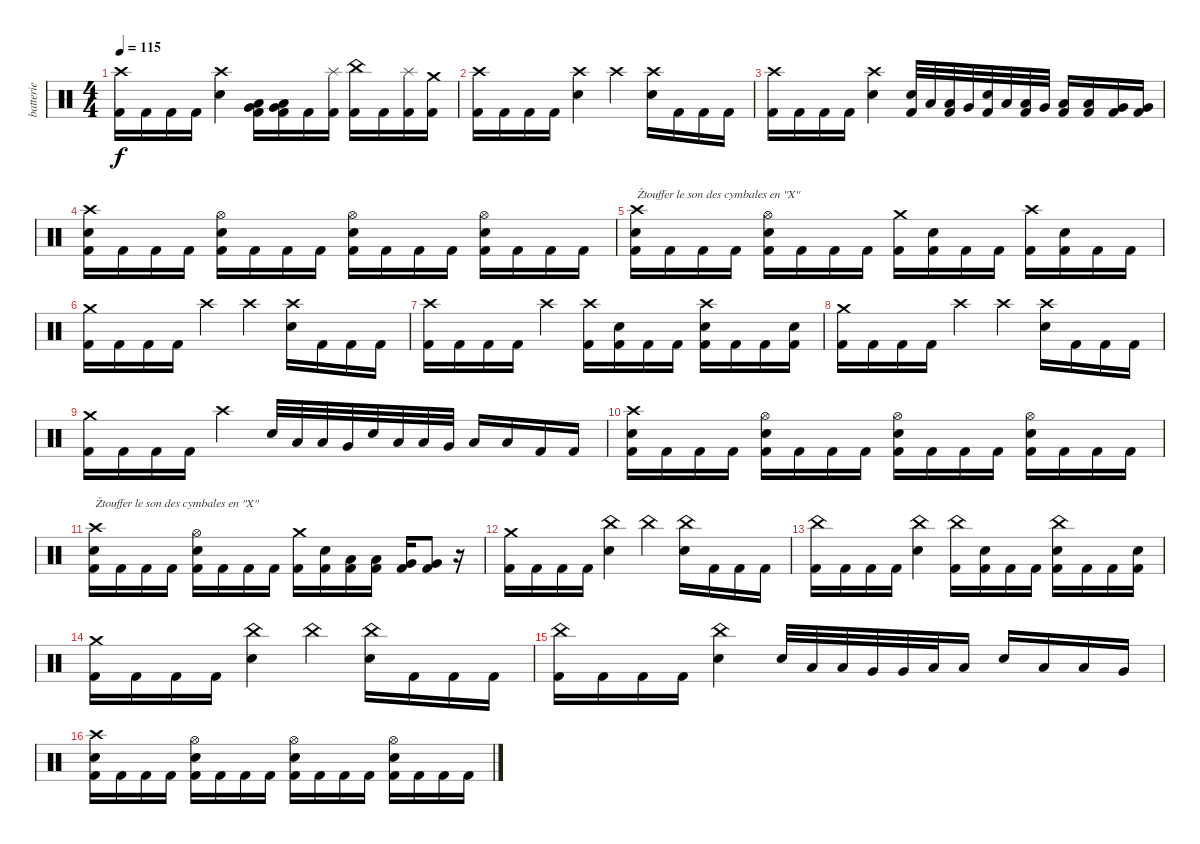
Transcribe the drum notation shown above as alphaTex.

\track ("batterie" "batterie") {instrument percussion}
\staff {score}
\articulation defaults
\ts (4 4)
\tempo 115
\clef neutral
\ks c
("Crash high (hit)" "Kick (hit) 2").16{dy f} "Kick (hit) 2".16 "Kick (hit) 2".16 "Kick (hit) 2".16 ("Crash high (hit)" "Electric Snare (hit)").4 ("Low Tom (hit)" "Very Low Tom (hit)" "Kick (hit) 2").16 ("Low Tom (hit)" "Very Low Tom (hit)" "Kick (hit) 2").16 "Kick (hit) 2".16 ("Splash (hit)" "Kick (hit) 2").16 ("China (hit)" "Kick (hit) 2").16 "Kick (hit) 2".16 ("Splash (hit)" "Kick (hit) 2").16 ("Crash medium (hit)" "Kick (hit) 2").16 |
("Crash high (hit)" "Kick (hit) 2").16 "Kick (hit) 2".16 "Kick (hit) 2".16 "Kick (hit) 2".16 ("Crash high (hit)" "Electric Snare (hit)").4 "Crash high (hit)".4 ("Crash high (hit)" "Electric Snare (hit)").16 "Kick (hit) 2".16 "Kick (hit) 2".16 "Kick (hit) 2".16 |
("Crash high (hit)" "Kick (hit) 2").16 "Kick (hit) 2".16 "Kick (hit) 2".16 "Kick (hit) 2".16 ("Crash high (hit)" "Electric Snare (hit)").4 ("Electric Snare (hit)" "Kick (hit) 2").32 "Low Tom (hit)".32 ("Low Tom (hit)" "Kick (hit) 2").32 "Very Low Tom (hit)".32 ("Electric Snare (hit)" "Kick (hit) 2").32 "Low Tom (hit)".32 ("Low Tom (hit)" "Kick (hit) 2").32 "Very Low Tom (hit)".32 ("Low Tom (hit)" "Kick (hit) 2").16 ("Low Tom (hit)" "Kick (hit) 2").16 ("Very Low Tom (hit)" "Kick (hit) 2").16 ("Very Low Tom (hit)" "Kick (hit) 2").16 |
("Crash high (hit)" "Electric Snare (hit)" "Kick (hit) 2").16 "Kick (hit) 2".16 "Kick (hit) 2".16 "Kick (hit) 2".16 ("Hi-Hat (open)" "Electric Snare (hit)" "Kick (hit) 2").16 "Kick (hit) 2".16 "Kick (hit) 2".16 "Kick (hit) 2".16 ("Hi-Hat (open)" "Electric Snare (hit)" "Kick (hit) 2").16 "Kick (hit) 2".16 "Kick (hit) 2".16 "Kick (hit) 2".16 ("Hi-Hat (open)" "Electric Snare (hit)" "Kick (hit) 2").16 "Kick (hit) 2".16 "Kick (hit) 2".16 "Kick (hit) 2".16 |
("Crash high (hit)" "Electric Snare (hit)" "Kick (hit) 2").16{txt "Žtouffer le son des cymbales en \"X\""} "Kick (hit) 2".16 "Kick (hit) 2".16 "Kick (hit) 2".16 ("Hi-Hat (open)" "Electric Snare (hit)" "Kick (hit) 2").16 "Kick (hit) 2".16 "Kick (hit) 2".16 "Kick (hit) 2".16 ("Crash medium (hit)" "Kick (hit) 2").16 ("Snare (hit)"{x} "Kick (hit) 2").16 "Kick (hit) 2".16 "Kick (hit) 2".16 ("Crash high (hit)" "Kick (hit) 2").16 ("Snare (hit)"{x} "Kick (hit) 2").16 "Kick (hit) 2".16 "Kick (hit) 2".16 |
("Crash medium (hit)" "Kick (hit) 2").16 "Kick (hit) 2".16 "Kick (hit) 2".16 "Kick (hit) 2".16 "Crash high (hit)".4 "Crash high (hit)".4 ("Crash high (hit)" "Electric Snare (hit)").16 "Kick (hit) 2".16 "Kick (hit) 2".16 "Kick (hit) 2".16 |
("Crash high (hit)" "Kick (hit) 2").16 "Kick (hit) 2".16 "Kick (hit) 2".16 "Kick (hit) 2".16 "Crash high (hit)".4 ("Crash high (hit)" "Kick (hit) 2").16 ("Electric Snare (hit)" "Kick (hit) 2").16 "Kick (hit) 2".16 "Kick (hit) 2".16 ("Crash high (hit)" "Electric Snare (hit)" "Kick (hit) 2").16 "Kick (hit) 2".16 "Kick (hit) 2".16 ("Electric Snare (hit)" "Kick (hit) 2").16 |
("Crash medium (hit)" "Kick (hit) 2").16 "Kick (hit) 2".16 "Kick (hit) 2".16 "Kick (hit) 2".16 "Crash high (hit)".4 "Crash high (hit)".4 ("Crash high (hit)" "Electric Snare (hit)").16 "Kick (hit) 2".16 "Kick (hit) 2".16 "Kick (hit) 2".16 |
("Crash medium (hit)" "Kick (hit) 2").16 "Kick (hit) 2".16 "Kick (hit) 2".16 "Kick (hit) 2".16 "Crash high (hit)".4 "Electric Snare (hit)".32 "Low Tom (hit)".32 "Low Tom (hit)".32 "Very Low Tom (hit)".32 "Electric Snare (hit)".32 "Low Tom (hit)".32 "Low Tom (hit)".32 "Very Low Tom (hit)".32 "Low Tom (hit)".16 "Low Tom (hit)".16 "Kick (hit) 2".16 "Kick (hit) 2".16 |
("Crash high (hit)" "Electric Snare (hit)" "Kick (hit) 2").16 "Kick (hit) 2".16 "Kick (hit) 2".16 "Kick (hit) 2".16 ("Hi-Hat (open)" "Electric Snare (hit)" "Kick (hit) 2").16 "Kick (hit) 2".16 "Kick (hit) 2".16 "Kick (hit) 2".16 ("Hi-Hat (open)" "Electric Snare (hit)" "Kick (hit) 2").16 "Kick (hit) 2".16 "Kick (hit) 2".16 "Kick (hit) 2".16 ("Hi-Hat (open)" "Electric Snare (hit)" "Kick (hit) 2").16 "Kick (hit) 2".16 "Kick (hit) 2".16 "Kick (hit) 2".16 |
("Crash high (hit)" "Electric Snare (hit)" "Kick (hit) 2").16{txt "Žtouffer le son des cymbales en \"X\""} "Kick (hit) 2".16 "Kick (hit) 2".16 "Kick (hit) 2".16 ("Hi-Hat (open)" "Electric Snare (hit)" "Kick (hit) 2").16 "Kick (hit) 2".16 "Kick (hit) 2".16 "Kick (hit) 2".16 ("Crash medium (hit)" "Kick (hit) 2").16 ("Snare (hit)"{x} "Kick (hit) 2").16 ("Low Tom (hit)" "Kick (hit) 2").16 ("Low Tom (hit)" "Kick (hit) 2").16 ("Very Low Tom (hit)" "Kick (hit) 2").16 ("Very Low Tom (hit)" "Kick (hit) 2").8 r.16 |
("Crash medium (hit)" "Kick (hit) 2").16 "Kick (hit) 2".16 "Kick (hit) 2".16 "Kick (hit) 2".16 ("China (hit)" "Electric Snare (hit)").4 "China (hit)".4 ("China (hit)" "Electric Snare (hit)").16 "Kick (hit) 2".16 "Kick (hit) 2".16 "Kick (hit) 2".16 |
("China (hit)" "Kick (hit) 2").16 "Kick (hit) 2".16 "Kick (hit) 2".16 "Kick (hit) 2".16 ("China (hit)" "Electric Snare (hit)").4 ("China (hit)" "Kick (hit) 2").16 ("Electric Snare (hit)" "Kick (hit) 2").16 "Kick (hit) 2".16 "Kick (hit) 2".16 ("China (hit)" "Electric Snare (hit)" "Kick (hit) 2").16 "Kick (hit) 2".16 "Kick (hit) 2".16 ("Electric Snare (hit)" "Kick (hit) 2").16 |
("Crash medium (hit)" "Kick (hit) 2").16 "Kick (hit) 2".16 "Kick (hit) 2".16 "Kick (hit) 2".16 ("China (hit)" "Electric Snare (hit)").4 "China (hit)".4 ("China (hit)" "Electric Snare (hit)").16 "Kick (hit) 2".16 "Kick (hit) 2".16 "Kick (hit) 2".16 |
("China (hit)" "Kick (hit) 2").16 "Kick (hit) 2".16 "Kick (hit) 2".16 "Kick (hit) 2".16 ("China (hit)" "Electric Snare (hit)").4 "Electric Snare (hit)".32 "Low Tom (hit)".32 "Low Tom (hit)".32 "Very Low Tom (hit)".32 "Very Low Tom (hit)".32 "Low Floor Tom (hit)".32 "Low Floor Tom (hit)".16 "Electric Snare (hit)".16 "Low Tom (hit)".16 "Low Tom (hit)".16 "Very Low Tom (hit)".16 |
("Crash high (hit)" "Electric Snare (hit)" "Kick (hit) 2").16 "Kick (hit) 2".16 "Kick (hit) 2".16 "Kick (hit) 2".16 ("Hi-Hat (open)" "Electric Snare (hit)" "Kick (hit) 2").16 "Kick (hit) 2".16 "Kick (hit) 2".16 "Kick (hit) 2".16 ("Hi-Hat (open)" "Electric Snare (hit)" "Kick (hit) 2").16 "Kick (hit) 2".16 "Kick (hit) 2".16 "Kick (hit) 2".16 ("Hi-Hat (open)" "Electric Snare (hit)" "Kick (hit) 2").16 "Kick (hit) 2".16 "Kick (hit) 2".16 "Kick (hit) 2".16
